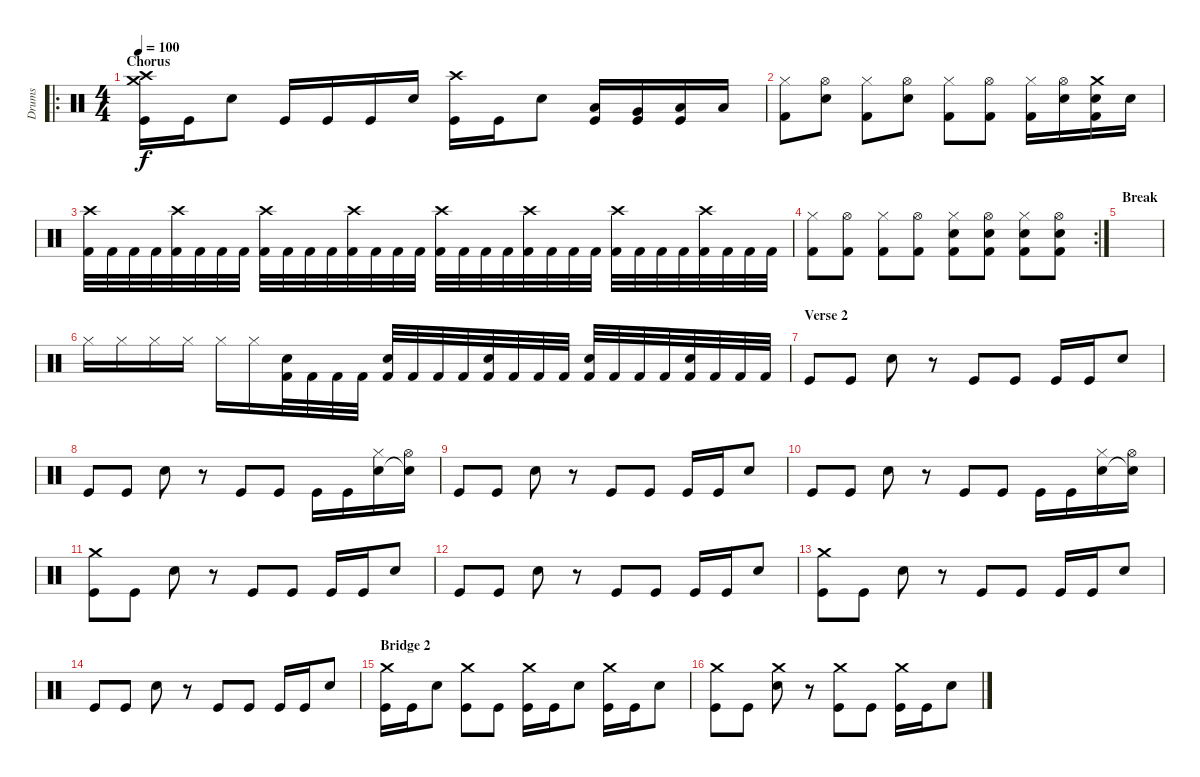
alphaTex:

\track ("Drums" "Drums") {instrument percussion}
\staff {score}
\articulation defaults
\ro
\ts (4 4)
\section ("" "Chorus")
\tempo 100
\clef neutral
\ks c
("Crash high (hit)" "Crash medium (hit)" "Kick (hit)").16{dy f} "Kick (hit)".16 "Electric Snare (hit)".8 "Kick (hit)".16 "Kick (hit)".16 "Kick (hit)".16 "Electric Snare (hit)".16 ("Crash high (hit)" "Kick (hit)").16 "Kick (hit)".16 "Electric Snare (hit)".8 ("Low Tom (hit)" "Kick (hit)").16 ("Very Low Tom (hit)" "Kick (hit)").16 ("Low Floor Tom (hit)" "Kick (hit)").16 "Low Floor Tom (hit)".16 |
("Hi-Hat (closed)" "Kick (hit) 2").8 ("Hi-Hat (open)" "Electric Snare (hit)").8 ("Hi-Hat (closed)" "Kick (hit) 2").8 ("Hi-Hat (open)" "Electric Snare (hit)").8 ("Hi-Hat (closed)" "Kick (hit) 2").8 ("Hi-Hat (open)" "Kick (hit) 2").8 ("Hi-Hat (closed)" "Kick (hit) 2").16 ("Hi-Hat (open)" "Electric Snare (hit)").16 ("Crash medium (hit)" "Electric Snare (hit)" "Kick (hit) 2").16 "Electric Snare (hit)".16 |
("Crash high (hit)" "Kick (hit) 2").32 "Kick (hit) 2".32 "Kick (hit) 2".32 "Kick (hit) 2".32 ("Crash high (hit)" "Kick (hit) 2").32 "Kick (hit) 2".32 "Kick (hit) 2".32 "Kick (hit) 2".32 ("Crash high (hit)" "Kick (hit) 2").32 "Kick (hit) 2".32 "Kick (hit) 2".32 "Kick (hit) 2".32 ("Crash high (hit)" "Kick (hit) 2").32 "Kick (hit) 2".32 "Kick (hit) 2".32 "Kick (hit) 2".32 ("Crash high (hit)" "Kick (hit) 2").32 "Kick (hit) 2".32 "Kick (hit) 2".32 "Kick (hit) 2".32 ("Crash high (hit)" "Kick (hit) 2").32 "Kick (hit) 2".32 "Kick (hit) 2".32 "Kick (hit) 2".32 ("Crash high (hit)" "Kick (hit) 2").32 "Kick (hit) 2".32 "Kick (hit) 2".32 "Kick (hit) 2".32 ("Crash high (hit)" "Kick (hit) 2").32 "Kick (hit) 2".32 "Kick (hit) 2".32 "Kick (hit) 2".32 |
\rc 2
("Hi-Hat (closed)" "Kick (hit) 2").8 ("Hi-Hat (open)" "Kick (hit) 2").8 ("Hi-Hat (closed)" "Kick (hit) 2").8 ("Hi-Hat (open)" "Kick (hit) 2").8 ("Hi-Hat (closed)" "Electric Snare (hit)" "Kick (hit) 2").8 ("Hi-Hat (open)" "Electric Snare (hit)" "Kick (hit) 2").8 ("Hi-Hat (closed)" "Electric Snare (hit)" "Kick (hit) 2").8 ("Hi-Hat (open)" "Electric Snare (hit)" "Kick (hit) 2").8 |
\section ("" "Break")
|
"Hi-Hat (closed)".16 "Hi-Hat (closed)".16 "Hi-Hat (closed)".16 "Hi-Hat (closed)".16 "Hi-Hat (closed)".16 "Hi-Hat (closed)".16 ("Electric Snare (hit)" "Kick (hit) 2").32 "Kick (hit) 2".32 "Kick (hit) 2".32 "Kick (hit) 2".32 ("Electric Snare (hit)" "Kick (hit) 2").32 "Kick (hit) 2".32 "Kick (hit) 2".32 "Kick (hit) 2".32 ("Electric Snare (hit)" "Kick (hit) 2").32 "Kick (hit) 2".32 "Kick (hit) 2".32 "Kick (hit) 2".32 ("Electric Snare (hit)" "Kick (hit) 2").32 "Kick (hit) 2".32 "Kick (hit) 2".32 "Kick (hit) 2".32 ("Electric Snare (hit)" "Kick (hit) 2").32 "Kick (hit) 2".32 "Kick (hit) 2".32 "Kick (hit) 2".32 |
\section ("" "Verse 2")
"Kick (hit)".8 "Kick (hit)".8 "Electric Snare (hit)".8 r.8 "Kick (hit)".8 "Kick (hit)".8 "Kick (hit)".16 "Kick (hit)".16 "Electric Snare (hit)".8 |
"Kick (hit)".8 "Kick (hit)".8 "Electric Snare (hit)".8 r.8 "Kick (hit)".8 "Kick (hit)".8 "Kick (hit)".16 "Kick (hit)".16 ("Hi-Hat (closed)" "Electric Snare (hit)").16 ("Hi-Hat (open)" "Snare (hit)"{t}).16 |
"Kick (hit)".8 "Kick (hit)".8 "Electric Snare (hit)".8 r.8 "Kick (hit)".8 "Kick (hit)".8 "Kick (hit)".16 "Kick (hit)".16 "Electric Snare (hit)".8 |
"Kick (hit)".8 "Kick (hit)".8 "Electric Snare (hit)".8 r.8 "Kick (hit)".8 "Kick (hit)".8 "Kick (hit)".16 "Kick (hit)".16 ("Hi-Hat (closed)" "Electric Snare (hit)").16 ("Hi-Hat (open)" "Snare (hit)"{t}).16 |
("Crash medium (hit)" "Kick (hit)").8 "Kick (hit)".8 "Electric Snare (hit)".8 r.8 "Kick (hit)".8 "Kick (hit)".8 "Kick (hit)".16 "Kick (hit)".16 "Electric Snare (hit)".8 |
"Kick (hit)".8 "Kick (hit)".8 "Electric Snare (hit)".8 r.8 "Kick (hit)".8 "Kick (hit)".8 "Kick (hit)".16 "Kick (hit)".16 "Electric Snare (hit)".8 |
("Crash medium (hit)" "Kick (hit)").8 "Kick (hit)".8 "Electric Snare (hit)".8 r.8 "Kick (hit)".8 "Kick (hit)".8 "Kick (hit)".16 "Kick (hit)".16 "Electric Snare (hit)".8 |
"Kick (hit)".8 "Kick (hit)".8 "Electric Snare (hit)".8 r.8 "Kick (hit)".8 "Kick (hit)".8 "Kick (hit)".16 "Kick (hit)".16 "Electric Snare (hit)".8 |
\section ("" "Bridge 2")
("Crash medium (hit)" "Kick (hit)").16 "Kick (hit)".16 "Electric Snare (hit)".8 ("Crash medium (hit)" "Kick (hit)").8 "Kick (hit)".8 ("Crash medium (hit)" "Kick (hit)").16 "Kick (hit)".16 "Electric Snare (hit)".8 ("Crash medium (hit)" "Kick (hit)").16 "Kick (hit)".16 "Electric Snare (hit)".8 |
("Crash medium (hit)" "Kick (hit)").8 "Kick (hit)".8 ("Crash medium (hit)" "Electric Snare (hit)").8 r.8 ("Crash medium (hit)" "Kick (hit)").8 "Kick (hit)".8 ("Crash medium (hit)" "Kick (hit)").16 "Kick (hit)".16 "Electric Snare (hit)".8
